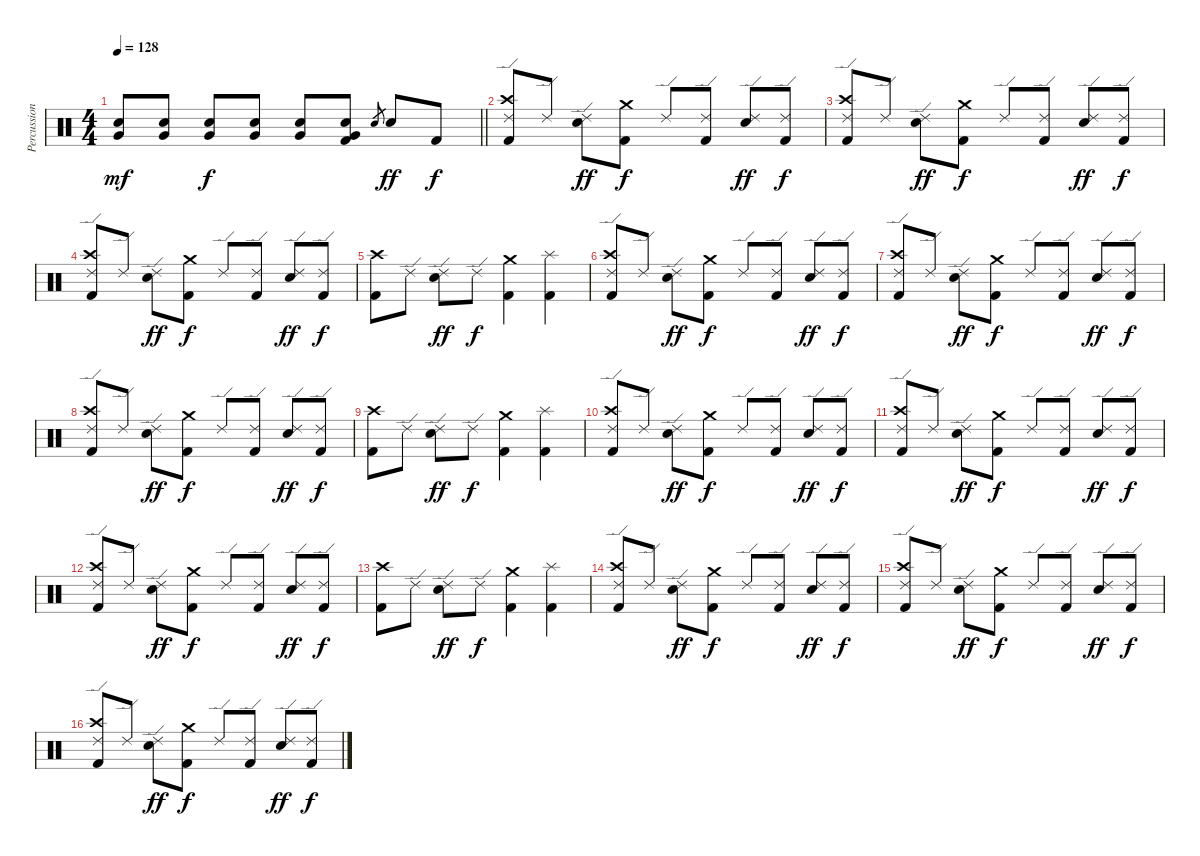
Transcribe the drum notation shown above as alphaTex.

\track ("Percussion" "Percussion") {instrument percussion}
\staff {score}
\articulation defaults
\ts (4 4)
\tempo 128
\clef neutral
\barLineRight lightlight
\ks c
("Very Low Tom (hit)" "Snare (hit) 2").8{dy mf} ("Very Low Tom (hit)" "Snare (hit) 2").8 ("Very Low Tom (hit)" "Snare (hit) 2").8{dy f} ("Very Low Tom (hit)" "Snare (hit) 2").8 ("Very Low Tom (hit)" "Snare (hit) 2").8 ("Very Low Tom (hit)" "Snare (hit) 2" "Kick (hit) 2").8 "Snare (hit) 2".8{gr} "Snare (hit) 2".8{dy ff} "Kick (hit) 2".8{dy f} |
("Crash high (hit)" "Ride (edge) 2" "Kick (hit) 2").8 "Ride (edge) 2".8 ("Ride (edge) 2" "Snare (hit) 2").8{dy ff} ("Crash medium (hit)" "Kick (hit) 2").8{dy f} "Ride (edge) 2".8 ("Ride (edge) 2" "Kick (hit) 2").8 ("Ride (edge) 2" "Snare (hit) 2").8{dy ff} ("Ride (edge) 2" "Kick (hit) 2").8{dy f} |
("Crash high (hit)" "Ride (edge) 2" "Kick (hit) 2").8 "Ride (edge) 2".8 ("Ride (edge) 2" "Snare (hit) 2").8{dy ff} ("Crash medium (hit)" "Kick (hit) 2").8{dy f} "Ride (edge) 2".8 ("Ride (edge) 2" "Kick (hit) 2").8 ("Ride (edge) 2" "Snare (hit) 2").8{dy ff} ("Ride (edge) 2" "Kick (hit) 2").8{dy f} |
("Crash high (hit)" "Ride (edge) 2" "Kick (hit) 2").8 "Ride (edge) 2".8 ("Ride (edge) 2" "Snare (hit) 2").8{dy ff} ("Crash medium (hit)" "Kick (hit) 2").8{dy f} "Ride (edge) 2".8 ("Ride (edge) 2" "Kick (hit) 2").8 ("Ride (edge) 2" "Snare (hit) 2").8{dy ff} ("Ride (edge) 2" "Kick (hit) 2").8{dy f} |
("Crash high (hit)" "Kick (hit) 2").8 "Ride (edge) 2".8 ("Ride (edge) 2" "Snare (hit) 2").8{dy ff} "Ride (edge) 2".8{dy f} ("Crash medium (hit)" "Kick (hit) 2").4 ("Splash (hit)" "Kick (hit) 2").4 |
("Crash high (hit)" "Ride (edge) 2" "Kick (hit) 2").8 "Ride (edge) 2".8 ("Ride (edge) 2" "Snare (hit) 2").8{dy ff} ("Crash medium (hit)" "Kick (hit) 2").8{dy f} "Ride (edge) 2".8 ("Ride (edge) 2" "Kick (hit) 2").8 ("Ride (edge) 2" "Snare (hit) 2").8{dy ff} ("Ride (edge) 2" "Kick (hit) 2").8{dy f} |
("Crash high (hit)" "Ride (edge) 2" "Kick (hit) 2").8 "Ride (edge) 2".8 ("Ride (edge) 2" "Snare (hit) 2").8{dy ff} ("Crash medium (hit)" "Kick (hit) 2").8{dy f} "Ride (edge) 2".8 ("Ride (edge) 2" "Kick (hit) 2").8 ("Ride (edge) 2" "Snare (hit) 2").8{dy ff} ("Ride (edge) 2" "Kick (hit) 2").8{dy f} |
("Crash high (hit)" "Ride (edge) 2" "Kick (hit) 2").8 "Ride (edge) 2".8 ("Ride (edge) 2" "Snare (hit) 2").8{dy ff} ("Crash medium (hit)" "Kick (hit) 2").8{dy f} "Ride (edge) 2".8 ("Ride (edge) 2" "Kick (hit) 2").8 ("Ride (edge) 2" "Snare (hit) 2").8{dy ff} ("Ride (edge) 2" "Kick (hit) 2").8{dy f} |
("Crash high (hit)" "Kick (hit) 2").8 "Ride (edge) 2".8 ("Ride (edge) 2" "Snare (hit) 2").8{dy ff} "Ride (edge) 2".8{dy f} ("Crash medium (hit)" "Kick (hit) 2").4 ("Splash (hit)" "Kick (hit) 2").4 |
("Crash high (hit)" "Ride (edge) 2" "Kick (hit) 2").8 "Ride (edge) 2".8 ("Ride (edge) 2" "Snare (hit) 2").8{dy ff} ("Crash medium (hit)" "Kick (hit) 2").8{dy f} "Ride (edge) 2".8 ("Ride (edge) 2" "Kick (hit) 2").8 ("Ride (edge) 2" "Snare (hit) 2").8{dy ff} ("Ride (edge) 2" "Kick (hit) 2").8{dy f} |
("Crash high (hit)" "Ride (edge) 2" "Kick (hit) 2").8 "Ride (edge) 2".8 ("Ride (edge) 2" "Snare (hit) 2").8{dy ff} ("Crash medium (hit)" "Kick (hit) 2").8{dy f} "Ride (edge) 2".8 ("Ride (edge) 2" "Kick (hit) 2").8 ("Ride (edge) 2" "Snare (hit) 2").8{dy ff} ("Ride (edge) 2" "Kick (hit) 2").8{dy f} |
("Crash high (hit)" "Ride (edge) 2" "Kick (hit) 2").8 "Ride (edge) 2".8 ("Ride (edge) 2" "Snare (hit) 2").8{dy ff} ("Crash medium (hit)" "Kick (hit) 2").8{dy f} "Ride (edge) 2".8 ("Ride (edge) 2" "Kick (hit) 2").8 ("Ride (edge) 2" "Snare (hit) 2").8{dy ff} ("Ride (edge) 2" "Kick (hit) 2").8{dy f} |
("Crash high (hit)" "Kick (hit) 2").8 "Ride (edge) 2".8 ("Ride (edge) 2" "Snare (hit) 2").8{dy ff} "Ride (edge) 2".8{dy f} ("Crash medium (hit)" "Kick (hit) 2").4 ("Splash (hit)" "Kick (hit) 2").4 |
("Crash high (hit)" "Ride (edge) 2" "Kick (hit) 2").8 "Ride (edge) 2".8 ("Ride (edge) 2" "Snare (hit) 2").8{dy ff} ("Crash medium (hit)" "Kick (hit) 2").8{dy f} "Ride (edge) 2".8 ("Ride (edge) 2" "Kick (hit) 2").8 ("Ride (edge) 2" "Snare (hit) 2").8{dy ff} ("Ride (edge) 2" "Kick (hit) 2").8{dy f} |
("Crash high (hit)" "Ride (edge) 2" "Kick (hit) 2").8 "Ride (edge) 2".8 ("Ride (edge) 2" "Snare (hit) 2").8{dy ff} ("Crash medium (hit)" "Kick (hit) 2").8{dy f} "Ride (edge) 2".8 ("Ride (edge) 2" "Kick (hit) 2").8 ("Ride (edge) 2" "Snare (hit) 2").8{dy ff} ("Ride (edge) 2" "Kick (hit) 2").8{dy f} |
("Crash high (hit)" "Ride (edge) 2" "Kick (hit) 2").8 "Ride (edge) 2".8 ("Ride (edge) 2" "Snare (hit) 2").8{dy ff} ("Crash medium (hit)" "Kick (hit) 2").8{dy f} "Ride (edge) 2".8 ("Ride (edge) 2" "Kick (hit) 2").8 ("Ride (edge) 2" "Snare (hit) 2").8{dy ff} ("Ride (edge) 2" "Kick (hit) 2").8{dy f}
